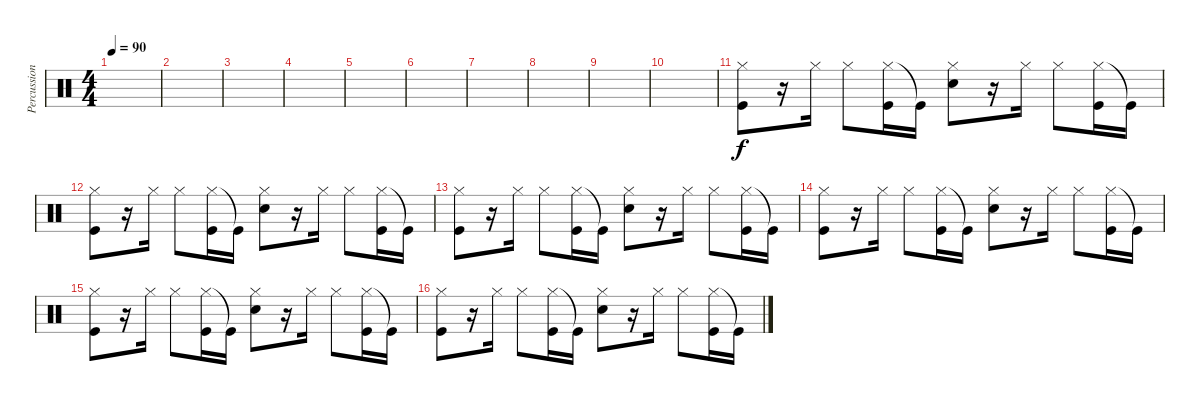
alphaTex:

\track ("Percussion" "Percussion") {instrument percussion}
\staff {score}
\articulation defaults
\ts (4 4)
\tempo 90
\clef neutral
\ks c
|
|
|
|
|
|
|
|
|
|
("Kick (hit)" "Hi-Hat (closed)").8 r.16 "Hi-Hat (closed)".16 "Hi-Hat (closed)".8 ("Hi-Hat (closed)" "Kick (hit)").16 "Kick (hit)"{t}.16 ("Hi-Hat (closed)" "Hand Clap (hit)").8 r.16 "Hi-Hat (closed)".16 "Hi-Hat (closed)".8 ("Hi-Hat (closed)" "Kick (hit)").16 "Kick (hit)"{t}.16 |
("Hi-Hat (closed)" "Kick (hit)").8 r.16 "Hi-Hat (closed)".16 "Hi-Hat (closed)".8 ("Hi-Hat (closed)" "Kick (hit)").16 "Kick (hit)"{t}.16 ("Hi-Hat (closed)" "Hand Clap (hit)").8 r.16 "Hi-Hat (closed)".16 "Hi-Hat (closed)".8 ("Hi-Hat (closed)" "Kick (hit)").16 "Kick (hit)"{t}.16 |
("Kick (hit)" "Hi-Hat (closed)").8 r.16 "Hi-Hat (closed)".16 "Hi-Hat (closed)".8 ("Hi-Hat (closed)" "Kick (hit)").16 "Kick (hit)"{t}.16 ("Hi-Hat (closed)" "Hand Clap (hit)").8 r.16 "Hi-Hat (closed)".16 "Hi-Hat (closed)".8 ("Hi-Hat (closed)" "Kick (hit)").16 "Kick (hit)"{t}.16 |
("Hi-Hat (closed)" "Kick (hit)").8 r.16 "Hi-Hat (closed)".16 "Hi-Hat (closed)".8 ("Hi-Hat (closed)" "Kick (hit)").16 "Kick (hit)"{t}.16 ("Hi-Hat (closed)" "Hand Clap (hit)").8 r.16 "Hi-Hat (closed)".16 "Hi-Hat (closed)".8 ("Hi-Hat (closed)" "Kick (hit)").16 "Kick (hit)"{t}.16 |
("Hi-Hat (closed)" "Kick (hit)").8 r.16 "Hi-Hat (closed)".16 "Hi-Hat (closed)".8 ("Hi-Hat (closed)" "Kick (hit)").16 "Kick (hit)"{t}.16 ("Hi-Hat (closed)" "Hand Clap (hit)").8 r.16 "Hi-Hat (closed)".16 "Hi-Hat (closed)".8 ("Hi-Hat (closed)" "Kick (hit)").16 "Kick (hit)"{t}.16 |
("Hi-Hat (closed)" "Kick (hit)").8 r.16 "Hi-Hat (closed)".16 "Hi-Hat (closed)".8 ("Hi-Hat (closed)" "Kick (hit)").16 "Kick (hit)"{t}.16 ("Hi-Hat (closed)" "Hand Clap (hit)").8 r.16 "Hi-Hat (closed)".16 "Hi-Hat (closed)".8 ("Hi-Hat (closed)" "Kick (hit)").16 "Kick (hit)"{t}.16
